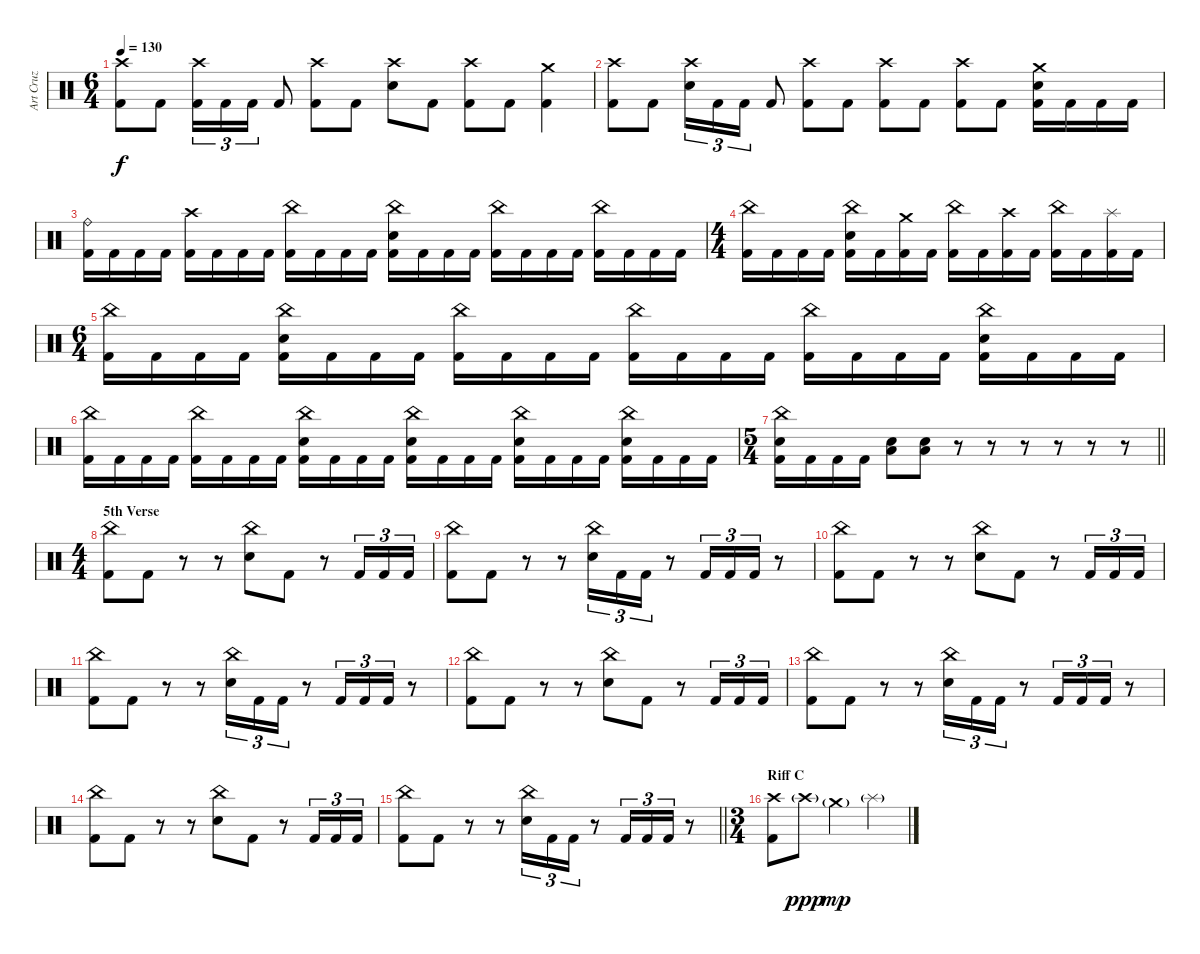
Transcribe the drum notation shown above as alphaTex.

\track ("Art Cruz" "Art Cruz") {instrument percussion}
\staff {score}
\articulation defaults
\ts (6 4)
\tempo 130
\clef neutral
\ks c
("Crash high (hit)" "Kick (hit) 2").8{dy f} "Kick (hit) 2".8 ("Crash high (hit)" "Kick (hit) 2").16{tu (3 2)} "Kick (hit) 2".16{tu (3 2)} "Kick (hit) 2".16{tu (3 2)} "Kick (hit) 2".8 ("Crash high (hit)" "Kick (hit) 2").8 "Kick (hit) 2".8 ("Crash high (hit)" "Snare (hit) 2").8 "Kick (hit) 2".8 ("Crash high (hit)" "Kick (hit) 2").8 "Kick (hit) 2".8 ("Crash medium (hit)" "Kick (hit) 2").4 |
("Crash high (hit)" "Kick (hit) 2").8 "Kick (hit) 2".8 ("Crash high (hit)" "Snare (hit) 2").16{tu (3 2)} "Kick (hit) 2".16{tu (3 2)} "Kick (hit) 2".16{tu (3 2)} "Kick (hit) 2".8 ("Crash high (hit)" "Kick (hit) 2").8 "Kick (hit) 2".8 ("Crash high (hit)" "Kick (hit) 2").8 "Kick (hit) 2".8 ("Crash high (hit)" "Kick (hit) 2").8 "Kick (hit) 2".8 ("Crash medium (hit)" "Snare (hit) 2" "Kick (hit) 2").16 "Kick (hit) 2".16 "Kick (hit) 2".16 "Kick (hit) 2".16 |
("Ride (bell)" "Kick (hit) 2").16 "Kick (hit) 2".16 "Kick (hit) 2".16 "Kick (hit) 2".16 ("Crash high (hit)" "Kick (hit) 2").16 "Kick (hit) 2".16 "Kick (hit) 2".16 "Kick (hit) 2".16 ("China (hit)" "Kick (hit) 2").16 "Kick (hit) 2".16 "Kick (hit) 2".16 "Kick (hit) 2".16 ("China (hit)" "Snare (hit) 2" "Kick (hit) 2").16 "Kick (hit) 2".16 "Kick (hit) 2".16 "Kick (hit) 2".16 ("China (hit)" "Kick (hit) 2").16 "Kick (hit) 2".16 "Kick (hit) 2".16 "Kick (hit) 2".16 ("China (hit)" "Kick (hit) 2").16 "Kick (hit) 2".16 "Kick (hit) 2".16 "Kick (hit) 2".16 |
\ts (4 4)
("China (hit)" "Kick (hit) 2").16 "Kick (hit) 2".16 "Kick (hit) 2".16 "Kick (hit) 2".16 ("China (hit)" "Snare (hit) 2" "Kick (hit) 2").16 "Kick (hit) 2".16 ("Crash medium (hit)" "Kick (hit) 2").16 "Kick (hit) 2".16 ("China (hit)" "Kick (hit) 2").16 "Kick (hit) 2".16 ("Crash high (hit)" "Kick (hit) 2").16 "Kick (hit) 2".16 ("China (hit)" "Kick (hit) 2").16 "Kick (hit) 2".16 ("Splash (hit)" "Kick (hit) 2").16 "Kick (hit) 2".16 |
\ts (6 4)
("China (hit)" "Kick (hit) 2").16 "Kick (hit) 2".16 "Kick (hit) 2".16 "Kick (hit) 2".16 ("China (hit)" "Snare (hit) 2" "Kick (hit) 2").16 "Kick (hit) 2".16 "Kick (hit) 2".16 "Kick (hit) 2".16 ("China (hit)" "Kick (hit) 2").16 "Kick (hit) 2".16 "Kick (hit) 2".16 "Kick (hit) 2".16 ("China (hit)" "Kick (hit) 2").16 "Kick (hit) 2".16 "Kick (hit) 2".16 "Kick (hit) 2".16 ("China (hit)" "Kick (hit) 2").16 "Kick (hit) 2".16 "Kick (hit) 2".16 "Kick (hit) 2".16 ("China (hit)" "Snare (hit) 2" "Kick (hit) 2").16 "Kick (hit) 2".16 "Kick (hit) 2".16 "Kick (hit) 2".16 |
("China (hit)" "Kick (hit) 2").16 "Kick (hit) 2".16 "Kick (hit) 2".16 "Kick (hit) 2".16 ("China (hit)" "Kick (hit) 2").16 "Kick (hit) 2".16 "Kick (hit) 2".16 "Kick (hit) 2".16 ("China (hit)" "Snare (hit) 2" "Kick (hit) 2").16 "Kick (hit) 2".16 "Kick (hit) 2".16 "Kick (hit) 2".16 ("China (hit)" "Snare (hit) 2" "Kick (hit) 2").16 "Kick (hit) 2".16 "Kick (hit) 2".16 "Kick (hit) 2".16 ("China (hit)" "Snare (hit) 2" "Kick (hit) 2").16 "Kick (hit) 2".16 "Kick (hit) 2".16 "Kick (hit) 2".16 ("China (hit)" "Snare (hit) 2" "Kick (hit) 2").16 "Kick (hit) 2".16 "Kick (hit) 2".16 "Kick (hit) 2".16 |
\ts (5 4)
\barLineRight lightlight
("China (hit)" "Snare (hit) 2" "Kick (hit) 2").16 "Kick (hit) 2".16 "Kick (hit) 2".16 "Kick (hit) 2".16 ("Low Floor Tom (hit)" "Snare (hit) 2").8 ("Low Floor Tom (hit)" "Snare (hit) 2").8 r.8 r.8 r.8 r.8 r.8 r.8 |
\ts (4 4)
\section ("" "5th Verse")
("China (hit)" "Kick (hit) 2").8 "Kick (hit) 2".8 r.8 r.8 ("China (hit)" "Snare (hit) 2").8 "Kick (hit) 2".8 r.8 "Kick (hit) 2".16{tu (3 2)} "Kick (hit) 2".16{tu (3 2)} "Kick (hit) 2".16{tu (3 2)} |
("China (hit)" "Kick (hit) 2").8 "Kick (hit) 2".8 r.8 r.8 ("China (hit)" "Snare (hit) 2").16{tu (3 2)} "Kick (hit) 2".16{tu (3 2)} "Kick (hit) 2".16{tu (3 2)} r.8 "Kick (hit) 2".16{tu (3 2)} "Kick (hit) 2".16{tu (3 2)} "Kick (hit) 2".16{tu (3 2)} r.8 |
("China (hit)" "Kick (hit) 2").8 "Kick (hit) 2".8 r.8 r.8 ("China (hit)" "Snare (hit) 2").8 "Kick (hit) 2".8 r.8 "Kick (hit) 2".16{tu (3 2)} "Kick (hit) 2".16{tu (3 2)} "Kick (hit) 2".16{tu (3 2)} |
("China (hit)" "Kick (hit) 2").8 "Kick (hit) 2".8 r.8 r.8 ("China (hit)" "Snare (hit) 2").16{tu (3 2)} "Kick (hit) 2".16{tu (3 2)} "Kick (hit) 2".16{tu (3 2)} r.8 "Kick (hit) 2".16{tu (3 2)} "Kick (hit) 2".16{tu (3 2)} "Kick (hit) 2".16{tu (3 2)} r.8 |
("China (hit)" "Kick (hit) 2").8 "Kick (hit) 2".8 r.8 r.8 ("China (hit)" "Snare (hit) 2").8 "Kick (hit) 2".8 r.8 "Kick (hit) 2".16{tu (3 2)} "Kick (hit) 2".16{tu (3 2)} "Kick (hit) 2".16{tu (3 2)} |
("China (hit)" "Kick (hit) 2").8 "Kick (hit) 2".8 r.8 r.8 ("China (hit)" "Snare (hit) 2").16{tu (3 2)} "Kick (hit) 2".16{tu (3 2)} "Kick (hit) 2".16{tu (3 2)} r.8 "Kick (hit) 2".16{tu (3 2)} "Kick (hit) 2".16{tu (3 2)} "Kick (hit) 2".16{tu (3 2)} r.8 |
("China (hit)" "Kick (hit) 2").8 "Kick (hit) 2".8 r.8 r.8 ("China (hit)" "Snare (hit) 2").8 "Kick (hit) 2".8 r.8 "Kick (hit) 2".16{tu (3 2)} "Kick (hit) 2".16{tu (3 2)} "Kick (hit) 2".16{tu (3 2)} |
\barLineRight lightlight
("China (hit)" "Kick (hit) 2").8 "Kick (hit) 2".8 r.8 r.8 ("China (hit)" "Snare (hit) 2").16{tu (3 2)} "Kick (hit) 2".16{tu (3 2)} "Kick (hit) 2".16{tu (3 2)} r.8 "Kick (hit) 2".16{tu (3 2)} "Kick (hit) 2".16{tu (3 2)} "Kick (hit) 2".16{tu (3 2)} r.8 |
\ts (3 4)
\section ("" "Riff C")
("Crash high (hit)" "Kick (hit) 2").8 "Crash high (hit)"{g}.8{dy ppp} "Crash medium (hit)"{g}.4{dy mp} "Splash (hit)"{g}.4
